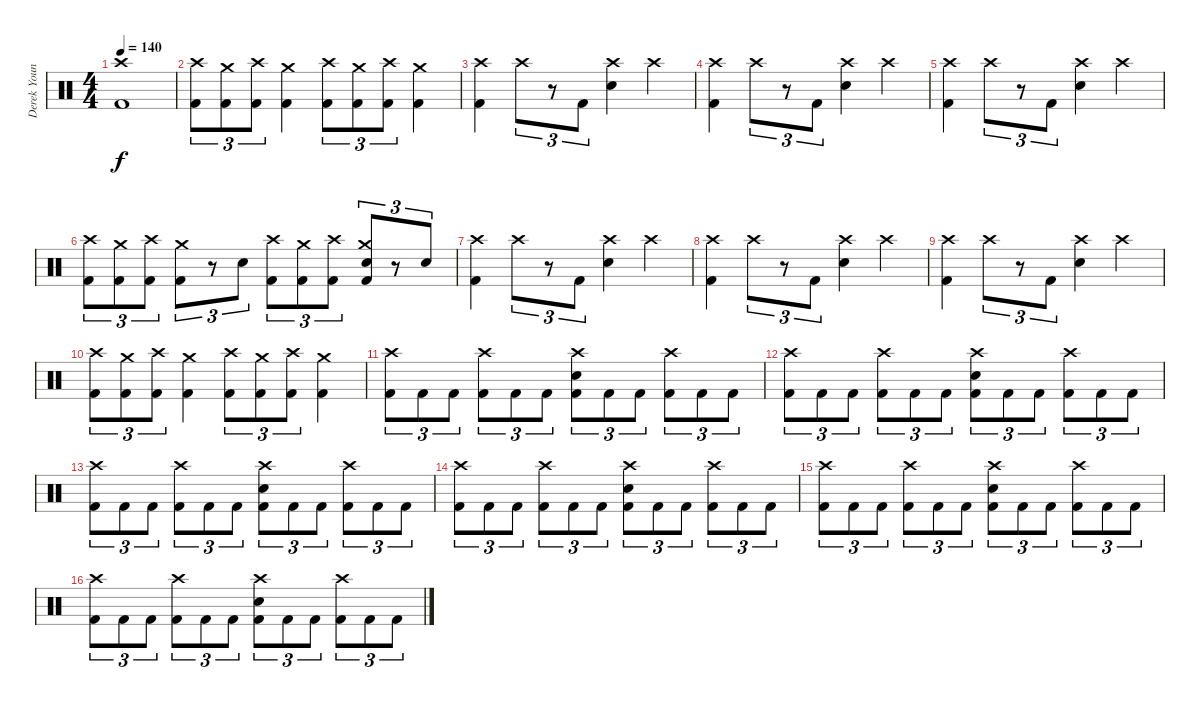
\track ("Derek Youngsma" "Derek Youn") {instrument percussion}
\staff {score}
\articulation defaults
\ts (4 4)
\tempo 140
\clef neutral
\ks c
("Crash high (hit)" "Kick (hit) 2").1{dy f} |
("Crash high (hit)" "Kick (hit) 2").8{tu (3 2)} ("Crash medium (hit)" "Kick (hit) 2").8{tu (3 2)} ("Crash high (hit)" "Kick (hit) 2").8{tu (3 2)} ("Crash medium (hit)" "Kick (hit) 2").4 ("Crash high (hit)" "Kick (hit) 2").8{tu (3 2)} ("Crash medium (hit)" "Kick (hit) 2").8{tu (3 2)} ("Crash high (hit)" "Kick (hit) 2").8{tu (3 2)} ("Crash medium (hit)" "Kick (hit) 2").4 |
("Crash high (hit)" "Kick (hit) 2").4 "Crash high (hit)".8{tu (3 2)} r.8{tu (3 2)} "Kick (hit) 2".8{tu (3 2)} ("Crash high (hit)" "Electric Snare (hit)").4 "Crash high (hit)".4 |
("Crash high (hit)" "Kick (hit) 2").4 "Crash high (hit)".8{tu (3 2)} r.8{tu (3 2)} "Kick (hit) 2".8{tu (3 2)} ("Crash high (hit)" "Electric Snare (hit)").4 "Crash high (hit)".4 |
("Crash high (hit)" "Kick (hit) 2").4 "Crash high (hit)".8{tu (3 2)} r.8{tu (3 2)} "Kick (hit) 2".8{tu (3 2)} ("Crash high (hit)" "Electric Snare (hit)").4 "Crash high (hit)".4 |
("Crash high (hit)" "Kick (hit) 2").8{tu (3 2)} ("Crash medium (hit)" "Kick (hit) 2").8{tu (3 2)} ("Crash high (hit)" "Kick (hit) 2").8{tu (3 2)} ("Crash medium (hit)" "Kick (hit) 2").8{tu (3 2)} r.8{tu (3 2)} "Electric Snare (hit)".8{tu (3 2)} ("Crash high (hit)" "Kick (hit) 2").8{tu (3 2)} ("Crash medium (hit)" "Kick (hit) 2").8{tu (3 2)} ("Crash high (hit)" "Kick (hit) 2").8{tu (3 2)} ("Crash medium (hit)" "Electric Snare (hit)" "Kick (hit) 2").8{tu (3 2)} r.8{tu (3 2)} "Electric Snare (hit)".8{tu (3 2)} |
("Crash high (hit)" "Kick (hit) 2").4 "Crash high (hit)".8{tu (3 2)} r.8{tu (3 2)} "Kick (hit) 2".8{tu (3 2)} ("Crash high (hit)" "Electric Snare (hit)").4 "Crash high (hit)".4 |
("Crash high (hit)" "Kick (hit) 2").4 "Crash high (hit)".8{tu (3 2)} r.8{tu (3 2)} "Kick (hit) 2".8{tu (3 2)} ("Crash high (hit)" "Electric Snare (hit)").4 "Crash high (hit)".4 |
("Crash high (hit)" "Kick (hit) 2").4 "Crash high (hit)".8{tu (3 2)} r.8{tu (3 2)} "Kick (hit) 2".8{tu (3 2)} ("Crash high (hit)" "Electric Snare (hit)").4 "Crash high (hit)".4 |
("Crash high (hit)" "Kick (hit) 2").8{tu (3 2)} ("Crash medium (hit)" "Kick (hit) 2").8{tu (3 2)} ("Crash high (hit)" "Kick (hit) 2").8{tu (3 2)} ("Crash medium (hit)" "Kick (hit) 2").4 ("Crash high (hit)" "Kick (hit) 2").8{tu (3 2)} ("Crash medium (hit)" "Kick (hit) 2").8{tu (3 2)} ("Crash high (hit)" "Kick (hit) 2").8{tu (3 2)} ("Crash medium (hit)" "Kick (hit) 2").4 |
("Crash high (hit)" "Kick (hit) 2").8{tu (3 2)} "Kick (hit) 2".8{tu (3 2)} "Kick (hit) 2".8{tu (3 2)} ("Crash high (hit)" "Kick (hit) 2").8{tu (3 2)} "Kick (hit) 2".8{tu (3 2)} "Kick (hit) 2".8{tu (3 2)} ("Crash high (hit)" "Electric Snare (hit)" "Kick (hit) 2").8{tu (3 2)} "Kick (hit) 2".8{tu (3 2)} "Kick (hit) 2".8{tu (3 2)} ("Crash high (hit)" "Kick (hit) 2").8{tu (3 2)} "Kick (hit) 2".8{tu (3 2)} "Kick (hit) 2".8{tu (3 2)} |
("Crash high (hit)" "Kick (hit) 2").8{tu (3 2)} "Kick (hit) 2".8{tu (3 2)} "Kick (hit) 2".8{tu (3 2)} ("Crash high (hit)" "Kick (hit) 2").8{tu (3 2)} "Kick (hit) 2".8{tu (3 2)} "Kick (hit) 2".8{tu (3 2)} ("Crash high (hit)" "Electric Snare (hit)" "Kick (hit) 2").8{tu (3 2)} "Kick (hit) 2".8{tu (3 2)} "Kick (hit) 2".8{tu (3 2)} ("Crash high (hit)" "Kick (hit) 2").8{tu (3 2)} "Kick (hit) 2".8{tu (3 2)} "Kick (hit) 2".8{tu (3 2)} |
("Crash high (hit)" "Kick (hit) 2").8{tu (3 2)} "Kick (hit) 2".8{tu (3 2)} "Kick (hit) 2".8{tu (3 2)} ("Crash high (hit)" "Kick (hit) 2").8{tu (3 2)} "Kick (hit) 2".8{tu (3 2)} "Kick (hit) 2".8{tu (3 2)} ("Crash high (hit)" "Electric Snare (hit)" "Kick (hit) 2").8{tu (3 2)} "Kick (hit) 2".8{tu (3 2)} "Kick (hit) 2".8{tu (3 2)} ("Crash high (hit)" "Kick (hit) 2").8{tu (3 2)} "Kick (hit) 2".8{tu (3 2)} "Kick (hit) 2".8{tu (3 2)} |
("Crash high (hit)" "Kick (hit) 2").8{tu (3 2)} "Kick (hit) 2".8{tu (3 2)} "Kick (hit) 2".8{tu (3 2)} ("Crash high (hit)" "Kick (hit) 2").8{tu (3 2)} "Kick (hit) 2".8{tu (3 2)} "Kick (hit) 2".8{tu (3 2)} ("Crash high (hit)" "Electric Snare (hit)" "Kick (hit) 2").8{tu (3 2)} "Kick (hit) 2".8{tu (3 2)} "Kick (hit) 2".8{tu (3 2)} ("Crash high (hit)" "Kick (hit) 2").8{tu (3 2)} "Kick (hit) 2".8{tu (3 2)} "Kick (hit) 2".8{tu (3 2)} |
("Crash high (hit)" "Kick (hit) 2").8{tu (3 2)} "Kick (hit) 2".8{tu (3 2)} "Kick (hit) 2".8{tu (3 2)} ("Crash high (hit)" "Kick (hit) 2").8{tu (3 2)} "Kick (hit) 2".8{tu (3 2)} "Kick (hit) 2".8{tu (3 2)} ("Crash high (hit)" "Electric Snare (hit)" "Kick (hit) 2").8{tu (3 2)} "Kick (hit) 2".8{tu (3 2)} "Kick (hit) 2".8{tu (3 2)} ("Crash high (hit)" "Kick (hit) 2").8{tu (3 2)} "Kick (hit) 2".8{tu (3 2)} "Kick (hit) 2".8{tu (3 2)} |
("Crash high (hit)" "Kick (hit) 2").8{tu (3 2)} "Kick (hit) 2".8{tu (3 2)} "Kick (hit) 2".8{tu (3 2)} ("Crash high (hit)" "Kick (hit) 2").8{tu (3 2)} "Kick (hit) 2".8{tu (3 2)} "Kick (hit) 2".8{tu (3 2)} ("Crash high (hit)" "Electric Snare (hit)" "Kick (hit) 2").8{tu (3 2)} "Kick (hit) 2".8{tu (3 2)} "Kick (hit) 2".8{tu (3 2)} ("Crash high (hit)" "Kick (hit) 2").8{tu (3 2)} "Kick (hit) 2".8{tu (3 2)} "Kick (hit) 2".8{tu (3 2)}
